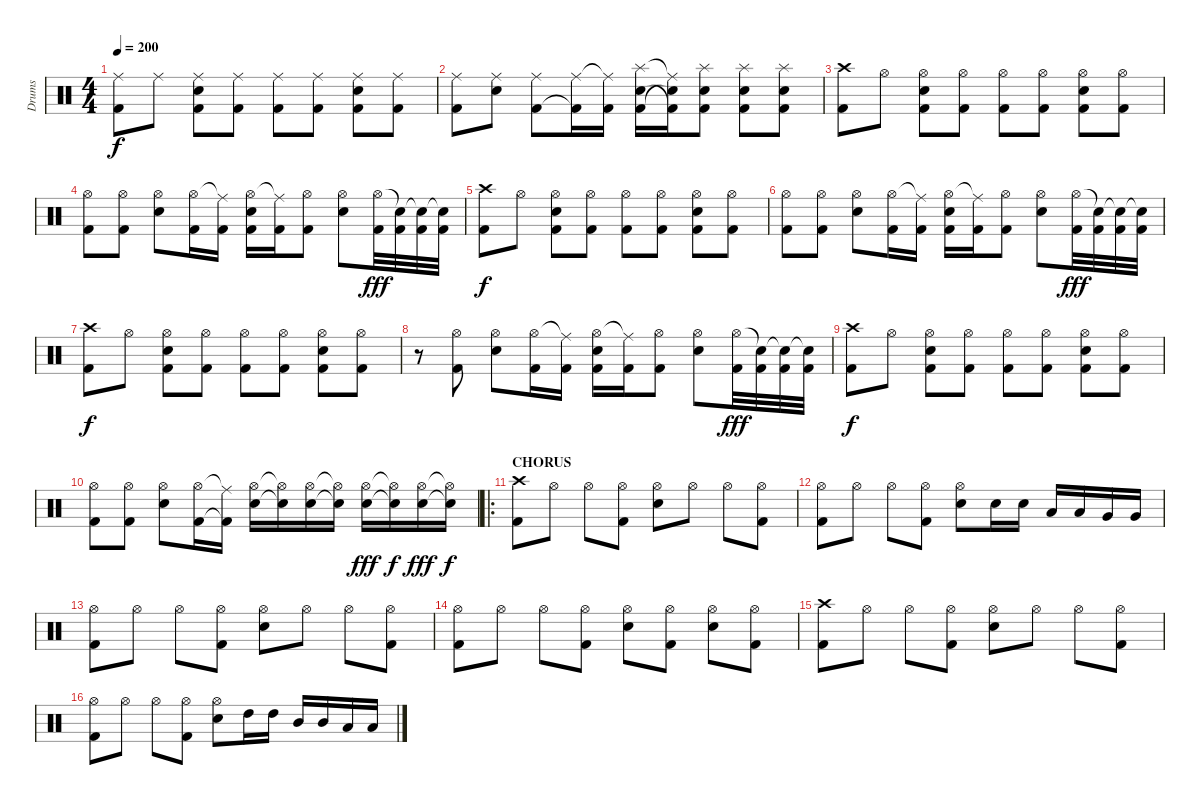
\track ("Drums" "Drums") {instrument percussion}
\staff {score}
\articulation defaults
\ts (4 4)
\tempo 200
\clef neutral
\ks c
("Ride (middle)" "Kick (hit) 2").8{dy f} "Ride (middle)".8 ("Ride (middle)" "Electric Snare (hit)" "Kick (hit) 2").8 ("Ride (middle)" "Kick (hit) 2").8 ("Ride (middle)" "Kick (hit) 2").8 ("Ride (middle)" "Kick (hit) 2").8 ("Ride (middle)" "Electric Snare (hit)" "Kick (hit) 2").8 ("Ride (middle)" "Kick (hit) 2").8 |
("Ride (middle)" "Kick (hit) 2").8 ("Ride (middle)" "Electric Snare (hit)").8 ("Ride (middle)" "Kick (hit) 2").8 ("Ride (middle)" "Kick (hit) 2"{t}).16 ("Ride (middle)"{t} "Kick (hit) 2").16 ("Splash (hit)" "Kick (hit) 2" "Electric Snare (hit)").16 ("Ride (middle)"{t} "Snare (hit)"{t} "Kick (hit) 2"{t}).16 ("Splash (hit)" "Kick (hit) 2" "Electric Snare (hit)").8 ("Splash (hit)" "Kick (hit) 2" "Electric Snare (hit)").8 ("Splash (hit)" "Kick (hit) 2" "Electric Snare (hit)").8 |
("Crash high (hit)" "Kick (hit) 2").8 "Hi-Hat (open)".8 ("Hi-Hat (open)" "Electric Snare (hit)" "Kick (hit) 2").8 ("Hi-Hat (open)" "Kick (hit) 2").8 ("Hi-Hat (open)" "Kick (hit) 2").8 ("Hi-Hat (open)" "Kick (hit) 2").8 ("Hi-Hat (open)" "Electric Snare (hit)" "Kick (hit) 2").8 ("Hi-Hat (open)" "Kick (hit) 2").8 |
("Hi-Hat (open)" "Kick (hit) 2").8 ("Hi-Hat (open)" "Kick (hit) 2").8 ("Hi-Hat (open)" "Electric Snare (hit)").8 ("Hi-Hat (open)" "Kick (hit) 2").16 ("Ride (middle)"{t} "Kick (hit) 2").16 ("Hi-Hat (open)" "Electric Snare (hit)" "Kick (hit) 2").16 ("Ride (middle)"{t} "Kick (hit) 2").16 ("Hi-Hat (open)" "Kick (hit) 2").8 ("Hi-Hat (open)" "Electric Snare (hit)").8 ("Hi-Hat (open)" "Kick (hit) 2").32{dy fff} ("Snare (hit)"{t} "Kick (hit) 2").32 ("Snare (hit)"{t} "Kick (hit) 2").32 ("Snare (hit)"{t} "Kick (hit) 2").32 |
("Crash high (hit)" "Kick (hit) 2").8{dy f} "Hi-Hat (open)".8 ("Hi-Hat (open)" "Electric Snare (hit)" "Kick (hit) 2").8 ("Hi-Hat (open)" "Kick (hit) 2").8 ("Hi-Hat (open)" "Kick (hit) 2").8 ("Hi-Hat (open)" "Kick (hit) 2").8 ("Hi-Hat (open)" "Electric Snare (hit)" "Kick (hit) 2").8 ("Hi-Hat (open)" "Kick (hit) 2").8 |
("Hi-Hat (open)" "Kick (hit) 2").8 ("Hi-Hat (open)" "Kick (hit) 2").8 ("Hi-Hat (open)" "Electric Snare (hit)").8 ("Hi-Hat (open)" "Kick (hit) 2").16 ("Ride (middle)"{t} "Kick (hit) 2").16 ("Hi-Hat (open)" "Electric Snare (hit)" "Kick (hit) 2").16 ("Ride (middle)"{t} "Kick (hit) 2").16 ("Hi-Hat (open)" "Kick (hit) 2").8 ("Hi-Hat (open)" "Electric Snare (hit)").8 ("Hi-Hat (open)" "Kick (hit) 2").32{dy fff} ("Snare (hit)"{t} "Kick (hit) 2").32 ("Snare (hit)"{t} "Kick (hit) 2").32 ("Snare (hit)"{t} "Kick (hit) 2").32 |
("Crash high (hit)" "Kick (hit) 2").8{dy f} "Hi-Hat (open)".8 ("Hi-Hat (open)" "Electric Snare (hit)" "Kick (hit) 2").8 ("Hi-Hat (open)" "Kick (hit) 2").8 ("Hi-Hat (open)" "Kick (hit) 2").8 ("Hi-Hat (open)" "Kick (hit) 2").8 ("Hi-Hat (open)" "Electric Snare (hit)" "Kick (hit) 2").8 ("Hi-Hat (open)" "Kick (hit) 2").8 |
r.8 ("Hi-Hat (open)" "Kick (hit) 2").8 ("Hi-Hat (open)" "Electric Snare (hit)").8 ("Hi-Hat (open)" "Kick (hit) 2").16 ("Ride (middle)"{t} "Kick (hit) 2").16 ("Hi-Hat (open)" "Electric Snare (hit)" "Kick (hit) 2").16 ("Ride (middle)"{t} "Kick (hit) 2").16 ("Hi-Hat (open)" "Kick (hit) 2").8 ("Hi-Hat (open)" "Electric Snare (hit)").8 ("Hi-Hat (open)" "Kick (hit) 2").32{dy fff} ("Snare (hit)"{t} "Kick (hit) 2").32 ("Snare (hit)"{t} "Kick (hit) 2").32 ("Snare (hit)"{t} "Kick (hit) 2").32 |
("Crash high (hit)" "Kick (hit) 2").8{dy f} "Hi-Hat (open)".8 ("Hi-Hat (open)" "Electric Snare (hit)" "Kick (hit) 2").8 ("Hi-Hat (open)" "Kick (hit) 2").8 ("Hi-Hat (open)" "Kick (hit) 2").8 ("Hi-Hat (open)" "Kick (hit) 2").8 ("Hi-Hat (open)" "Electric Snare (hit)" "Kick (hit) 2").8 ("Hi-Hat (open)" "Kick (hit) 2").8 |
("Hi-Hat (open)" "Kick (hit) 2").8 ("Hi-Hat (open)" "Kick (hit) 2").8 ("Hi-Hat (open)" "Electric Snare (hit)").8 ("Hi-Hat (open)" "Kick (hit) 2").16 ("Ride (middle)"{t} "Kick (hit) 2"{t}).16 ("Hi-Hat (open)" "Electric Snare (hit)").16 ("Hi-Hat (open)"{t} "Electric Snare (hit)"{t}).16 ("Hi-Hat (open)" "Electric Snare (hit)").16 ("Hi-Hat (open)"{t} "Electric Snare (hit)"{t}).16 ("Hi-Hat (open)" "Electric Snare (hit)").16{dy fff} ("Hi-Hat (open)"{t} "Electric Snare (hit)"{t}).16{dy f} ("Hi-Hat (open)" "Electric Snare (hit)").16{dy fff} ("Hi-Hat (open)"{t} "Electric Snare (hit)"{t}).16{dy f} |
\ro
\section ("" "CHORUS")
("Crash high (hit)" "Kick (hit) 2").8 "Hi-Hat (open)".8 "Hi-Hat (open)".8 ("Hi-Hat (open)" "Kick (hit) 2").8 ("Hi-Hat (open)" "Electric Snare (hit)").8 "Hi-Hat (open)".8 "Hi-Hat (open)".8 ("Hi-Hat (open)" "Kick (hit) 2").8 |
("Hi-Hat (open)" "Kick (hit) 2").8 "Hi-Hat (open)".8 "Hi-Hat (open)".8 ("Hi-Hat (open)" "Kick (hit) 2").8 ("Hi-Hat (open)" "Electric Snare (hit)").8 "Electric Snare (hit)".16 "Electric Snare (hit)".16 "Low Tom (hit)".16 "Low Tom (hit)".16 "Very Low Tom (hit)".16 "Very Low Tom (hit)".16 |
("Hi-Hat (open)" "Kick (hit) 2").8 "Hi-Hat (open)".8 "Hi-Hat (open)".8 ("Hi-Hat (open)" "Kick (hit) 2").8 ("Hi-Hat (open)" "Electric Snare (hit)").8 "Hi-Hat (open)".8 "Hi-Hat (open)".8 ("Hi-Hat (open)" "Kick (hit) 2").8 |
("Hi-Hat (open)" "Kick (hit) 2").8 "Hi-Hat (open)".8 "Hi-Hat (open)".8 ("Hi-Hat (open)" "Kick (hit) 2").8 ("Hi-Hat (open)" "Electric Snare (hit)").8 ("Hi-Hat (open)" "Kick (hit) 2").8 ("Hi-Hat (open)" "Electric Snare (hit)").8 ("Hi-Hat (open)" "Kick (hit) 2").8 |
("Crash high (hit)" "Kick (hit) 2").8 "Hi-Hat (open)".8 "Hi-Hat (open)".8 ("Hi-Hat (open)" "Kick (hit) 2").8 ("Hi-Hat (open)" "Electric Snare (hit)").8 "Hi-Hat (open)".8 "Hi-Hat (open)".8 ("Hi-Hat (open)" "Kick (hit) 2").8 |
("Hi-Hat (open)" "Kick (hit) 2").8 "Hi-Hat (open)".8 "Hi-Hat (open)".8 ("Hi-Hat (open)" "Kick (hit) 2").8 ("Hi-Hat (open)" "Electric Snare (hit)").8 "High Tom (hit)".16 "High Tom (hit)".16 "Mid Tom (hit)".16 "Mid Tom (hit)".16 "Low Tom (hit)".16 "Low Tom (hit)".16
